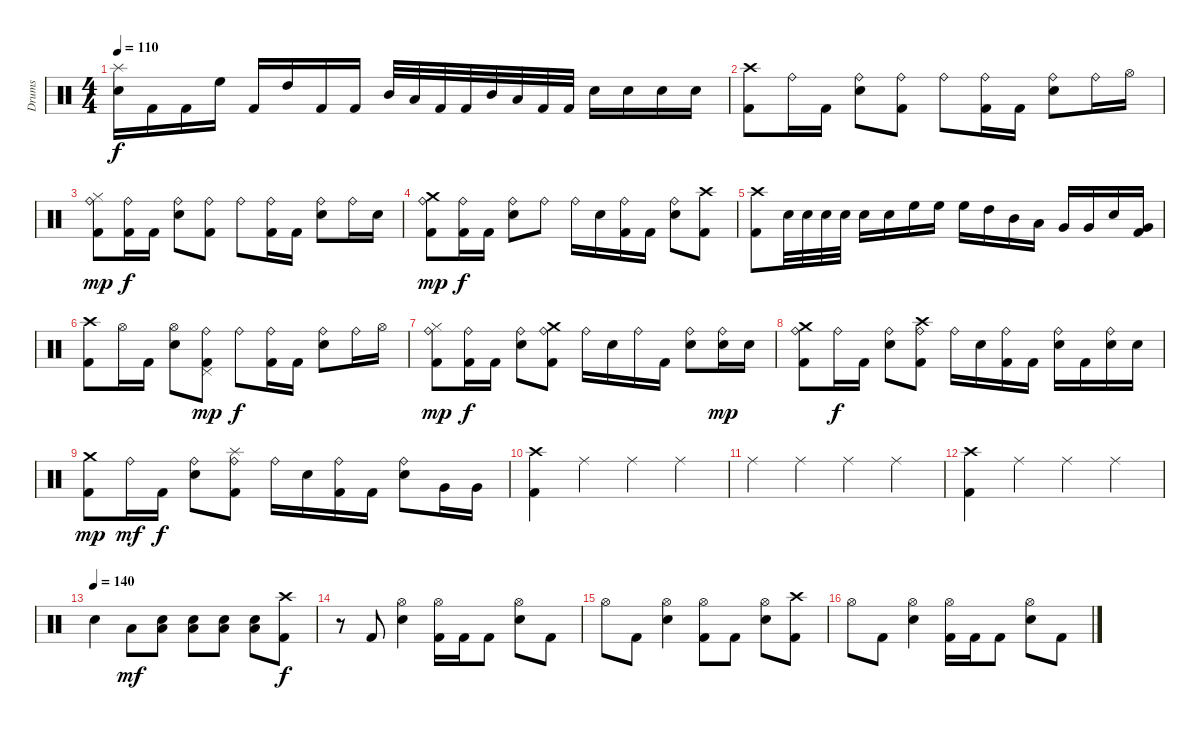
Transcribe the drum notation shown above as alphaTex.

\track ("Drums" "Drums") {instrument percussion}
\staff {score}
\articulation defaults
\ts (4 4)
\tempo 110
\clef neutral
\ks c
("Electric Snare (hit)" "Splash (hit)").16{dy f} "Kick (hit) 2".16 "Kick (hit) 2".16 "High Floor Tom (hit)".16 "Kick (hit) 2".16 "High Tom (hit)".16 "Kick (hit) 2".16 "Kick (hit) 2".16 "Mid Tom (hit)".32 "Low Tom (hit)".32 "Kick (hit) 2".32 "Kick (hit) 2".32 "Mid Tom (hit)".32 "Low Tom (hit)".32 "Kick (hit) 2".32 "Kick (hit) 2".32 "Electric Snare (hit)".16 "Electric Snare (hit)".16 "Electric Snare (hit)".16 "Electric Snare (hit)".16 |
("Crash high (hit)" "Kick (hit) 2").8 "Ride (bell)".16 "Kick (hit) 2".16 ("Electric Snare (hit)" "Ride (bell)").8 ("Kick (hit) 2" "Ride (bell)").8 "Ride (bell)".8 ("Kick (hit) 2" "Ride (bell)").16 "Kick (hit) 2".16 ("Electric Snare (hit)" "Ride (bell)").8 "Ride (bell)".16 "Hi-Hat (open)".16 |
("Ride (bell)" "Hi-Hat (closed)" "Kick (hit) 2").8{dy mp} ("Ride (bell)" "Kick (hit) 2").16{dy f} "Kick (hit) 2".16 ("Electric Snare (hit)" "Ride (bell)").8 ("Kick (hit) 2" "Ride (bell)").8 "Ride (bell)".8 ("Kick (hit) 2" "Ride (bell)").16 "Kick (hit) 2".16 ("Ride (bell)" "Electric Snare (hit)").8 "Ride (bell)".16 "Electric Snare (hit)".16 |
("Kick (hit) 2" "Ride (bell)" "Crash medium (hit)").8{dy mp} ("Ride (bell)" "Kick (hit) 2").16{dy f} "Kick (hit) 2".16 ("Electric Snare (hit)" "Ride (bell)").8 "Ride (bell)".8 "Ride (bell)".16 "Electric Snare (hit)".16 ("Kick (hit) 2" "Ride (bell)").16 "Kick (hit) 2".16 ("Ride (bell)" "Electric Snare (hit)").8 ("Crash high (hit)" "Kick (hit) 2").8 |
("Kick (hit) 2" "Crash high (hit)").8 "Electric Snare (hit)".32 "Electric Snare (hit)".32 "Electric Snare (hit)".32 "Electric Snare (hit)".32 "Electric Snare (hit)".16 "Electric Snare (hit)".16 "High Floor Tom (hit)".16 "High Floor Tom (hit)".16 "High Floor Tom (hit)".16 "High Tom (hit)".16 "Mid Tom (hit)".16 "Low Tom (hit)".16 "Very Low Tom (hit)".16 "Very Low Tom (hit)".16 "Electric Snare (hit)".16 ("Very Low Tom (hit)" "Kick (hit) 2").16 |
("Kick (hit) 2" "Crash high (hit)").8 "Hi-Hat (open)".16 "Kick (hit) 2".16 ("Electric Snare (hit)" "Hi-Hat (open)").8 ("Kick (hit) 2" "Pedal Hi-Hat (hit)" "Ride (bell)").8{dy mp} "Ride (bell)".8{dy f} ("Kick (hit) 2" "Ride (bell)").16 "Kick (hit) 2".16 ("Electric Snare (hit)" "Ride (bell)").8 "Ride (bell)".16 "Hi-Hat (open)".16 |
("Ride (bell)" "Hi-Hat (closed)" "Kick (hit) 2").8{dy mp} ("Ride (bell)" "Kick (hit) 2").16{dy f} "Kick (hit) 2".16 ("Electric Snare (hit)" "Ride (bell)").8 ("Kick (hit) 2" "Ride (bell)" "Crash medium (hit)").8 "Ride (bell)".16 "Electric Snare (hit)".16 "Ride (bell)".16 "Kick (hit) 2".16 ("Ride (bell)" "Electric Snare (hit)").8 ("Ride (bell)" "Electric Snare (hit)").16{dy mp} "Electric Snare (hit)".16 |
("Kick (hit) 2" "Ride (bell)" "Crash medium (hit)").8 "Ride (bell)".16{dy f} "Kick (hit) 2".16 ("Electric Snare (hit)" "Ride (bell)").8 ("Ride (bell)" "Kick (hit) 2" "Crash high (hit)").8 "Ride (bell)".16 "Electric Snare (hit)".16 ("Kick (hit) 2" "Ride (bell)").16 "Kick (hit) 2".16 ("Ride (bell)" "Electric Snare (hit)").16 "Kick (hit) 2".16 ("Electric Snare (hit)" "Ride (bell)").16 "Electric Snare (hit)".16 |
("Crash medium (hit)" "Kick (hit) 2").8{dy mp} "Ride (bell)".16{dy mf} "Kick (hit) 2".16{dy f} ("Electric Snare (hit)" "Ride (bell)").8 ("Ride (bell)" "Kick (hit) 2" "Splash (hit)").8 "Ride (bell)".16 "Electric Snare (hit)".16 ("Kick (hit) 2" "Ride (bell)").16 "Kick (hit) 2".16 ("Ride (bell)" "Electric Snare (hit)").8 "Very Low Tom (hit)".16 "Very Low Tom (hit)".16 |
("Kick (hit) 2" "Crash high (hit)").4 "Ride (middle)".4 "Ride (middle)".4 "Ride (middle)".4 |
"Ride (middle)".4 "Ride (middle)".4 "Ride (middle)".4 "Ride (middle)".4 |
("Crash high (hit)" "Kick (hit) 2").4 "Ride (middle)".4 "Ride (middle)".4 "Ride (middle)".4 |
\tempo (140)
"Electric Snare (hit)".4 "Low Tom (hit)".8{dy mf} ("Electric Snare (hit)" "Low Tom (hit)").8 ("Electric Snare (hit)" "Low Tom (hit)").8 ("Electric Snare (hit)" "Low Tom (hit)").8 ("Electric Snare (hit)" "Low Tom (hit)").8 ("Crash high (hit)" "Kick (hit) 2").8{dy f} |
r.8 "Kick (hit) 2".8 ("Electric Snare (hit)" "Hi-Hat (open)").4 ("Kick (hit) 2" "Hi-Hat (open)").16 "Kick (hit) 2".16 "Kick (hit) 2".8 ("Hi-Hat (open)" "Electric Snare (hit)").8 "Kick (hit) 2".8 |
"Hi-Hat (open)".8 "Kick (hit) 2".8 ("Electric Snare (hit)" "Hi-Hat (open)").4 ("Hi-Hat (open)" "Kick (hit) 2").8 "Kick (hit) 2".8 ("Hi-Hat (open)" "Electric Snare (hit)").8 ("Kick (hit) 2" "Crash high (hit)").8 |
"Hi-Hat (open)".8 "Kick (hit) 2".8 ("Electric Snare (hit)" "Hi-Hat (open)").4 ("Kick (hit) 2" "Hi-Hat (open)").16 "Kick (hit) 2".16 "Kick (hit) 2".8 ("Hi-Hat (open)" "Electric Snare (hit)").8 "Kick (hit) 2".8
